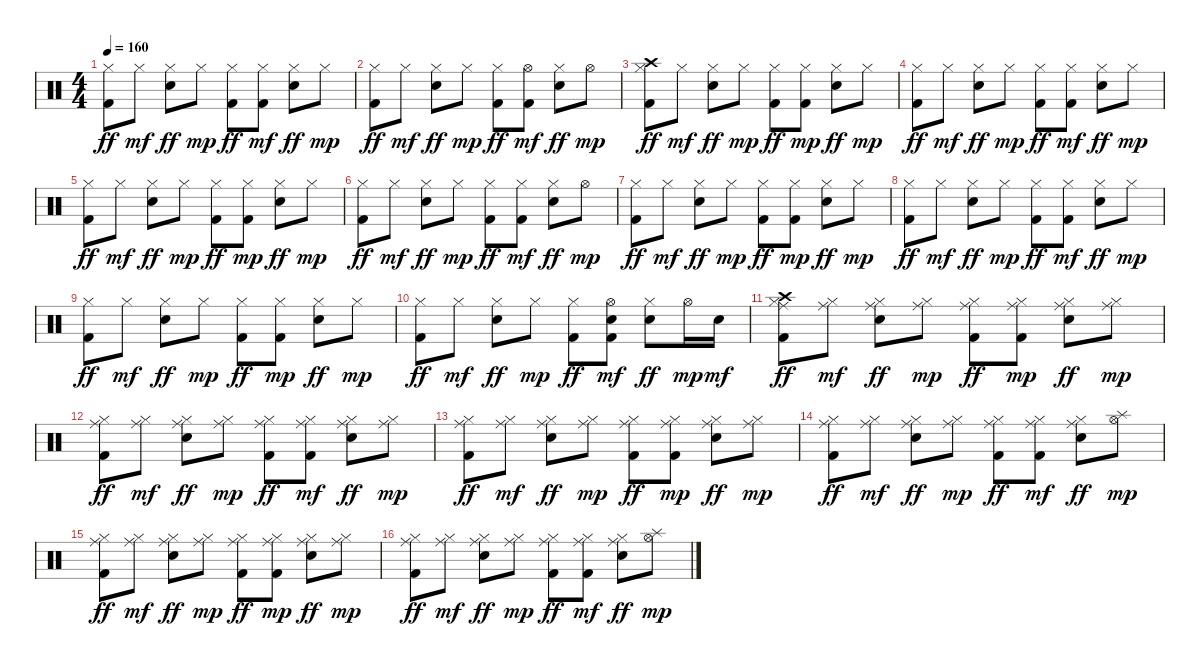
\track "" {instrument percussion}
\staff {score}
\articulation defaults
\ts (4 4)
\tempo 160
\clef neutral
\ks c
("Kick (hit) 2" "Hi-Hat (closed)").8{dy ff} "Hi-Hat (closed)".8{dy mf} ("Snare (hit) 2" "Hi-Hat (closed)").8{dy ff} "Hi-Hat (closed)".8{dy mp} ("Kick (hit) 2" "Hi-Hat (closed)").8{dy ff} ("Hi-Hat (closed)" "Kick (hit) 2").8{dy mf} ("Hi-Hat (closed)" "Snare (hit) 2").8{dy ff} "Hi-Hat (closed)".8{dy mp} |
("Hi-Hat (closed)" "Kick (hit) 2").8{dy ff} "Hi-Hat (closed)".8{dy mf} ("Snare (hit) 2" "Hi-Hat (closed)").8{dy ff} "Hi-Hat (closed)".8{dy mp} ("Hi-Hat (closed)" "Kick (hit) 2").8{dy ff} ("Hi-Hat (open)" "Kick (hit) 2").8{dy mf} ("Snare (hit) 2" "Hi-Hat (closed)").8{dy ff} "Hi-Hat (open)".8{dy mp} |
("Hi-Hat (closed)" "Kick (hit) 2" "Crash high (hit)").8{dy ff} "Hi-Hat (closed)".8{dy mf} ("Snare (hit) 2" "Hi-Hat (closed)").8{dy ff} "Hi-Hat (closed)".8{dy mp} ("Kick (hit) 2" "Hi-Hat (closed)").8{dy ff} ("Kick (hit) 2" "Hi-Hat (closed)").8{dy mp} ("Hi-Hat (closed)" "Snare (hit) 2").8{dy ff} "Hi-Hat (closed)".8{dy mp} |
("Hi-Hat (closed)" "Kick (hit) 2").8{dy ff} "Hi-Hat (closed)".8{dy mf} ("Snare (hit) 2" "Hi-Hat (closed)").8{dy ff} "Hi-Hat (closed)".8{dy mp} ("Hi-Hat (closed)" "Kick (hit) 2").8{dy ff} ("Hi-Hat (closed)" "Kick (hit) 2").8{dy mf} ("Snare (hit) 2" "Hi-Hat (closed)").8{dy ff} "Hi-Hat (closed)".8{dy mp} |
("Kick (hit) 2" "Hi-Hat (closed)").8{dy ff} "Hi-Hat (closed)".8{dy mf} ("Snare (hit) 2" "Hi-Hat (closed)").8{dy ff} "Hi-Hat (closed)".8{dy mp} ("Kick (hit) 2" "Hi-Hat (closed)").8{dy ff} ("Kick (hit) 2" "Hi-Hat (closed)").8{dy mp} ("Hi-Hat (closed)" "Snare (hit) 2").8{dy ff} "Hi-Hat (closed)".8{dy mp} |
("Hi-Hat (closed)" "Kick (hit) 2").8{dy ff} "Hi-Hat (closed)".8{dy mf} ("Snare (hit) 2" "Hi-Hat (closed)").8{dy ff} "Hi-Hat (closed)".8{dy mp} ("Hi-Hat (closed)" "Kick (hit) 2").8{dy ff} ("Hi-Hat (closed)" "Kick (hit) 2").8{dy mf} ("Snare (hit) 2" "Hi-Hat (closed)").8{dy ff} "Hi-Hat (open)".8{dy mp} |
("Hi-Hat (closed)" "Kick (hit) 2").8{dy ff} "Hi-Hat (closed)".8{dy mf} ("Hi-Hat (closed)" "Snare (hit) 2").8{dy ff} "Hi-Hat (closed)".8{dy mp} ("Hi-Hat (closed)" "Kick (hit) 2").8{dy ff} ("Kick (hit) 2" "Hi-Hat (closed)").8{dy mp} ("Hi-Hat (closed)" "Snare (hit) 2").8{dy ff} "Hi-Hat (closed)".8{dy mp} |
("Hi-Hat (closed)" "Kick (hit) 2").8{dy ff} "Hi-Hat (closed)".8{dy mf} ("Snare (hit) 2" "Hi-Hat (closed)").8{dy ff} "Hi-Hat (closed)".8{dy mp} ("Hi-Hat (closed)" "Kick (hit) 2").8{dy ff} ("Hi-Hat (closed)" "Kick (hit) 2").8{dy mf} ("Snare (hit) 2" "Hi-Hat (closed)").8{dy ff} "Hi-Hat (closed)".8{dy mp} |
("Hi-Hat (closed)" "Kick (hit) 2").8{dy ff} "Hi-Hat (closed)".8{dy mf} ("Hi-Hat (closed)" "Snare (hit) 2").8{dy ff} "Hi-Hat (closed)".8{dy mp} ("Hi-Hat (closed)" "Kick (hit) 2").8{dy ff} ("Kick (hit) 2" "Hi-Hat (closed)").8{dy mp} ("Hi-Hat (closed)" "Snare (hit) 2").8{dy ff} "Hi-Hat (closed)".8{dy mp} |
("Hi-Hat (closed)" "Kick (hit) 2").8{dy ff} "Hi-Hat (closed)".8{dy mf} ("Snare (hit) 2" "Hi-Hat (closed)").8{dy ff} "Hi-Hat (closed)".8{dy mp} ("Hi-Hat (closed)" "Kick (hit) 2").8{dy ff} ("Hi-Hat (open)" "Snare (hit) 2" "Kick (hit) 2").8{dy mf} ("Hi-Hat (closed)" "Snare (hit) 2").8{dy ff} "Hi-Hat (open)".16{dy mp} "Snare (hit) 2".16{dy mf} |
("Kick (hit) 2" "Crash high (hit)" "Hi-Hat (closed)" "Ride (middle)").8{dy ff} ("Hi-Hat (closed)" "Ride (middle)").8{dy mf} ("Ride (middle)" "Hi-Hat (closed)" "Snare (hit) 2").8{dy ff} ("Hi-Hat (closed)" "Ride (middle)").8{dy mp} ("Ride (middle)" "Hi-Hat (closed)" "Kick (hit) 2").8{dy ff} ("Kick (hit) 2" "Ride (middle)" "Hi-Hat (closed)").8{dy mp} ("Ride (middle)" "Snare (hit) 2" "Hi-Hat (closed)").8{dy ff} ("Ride (middle)" "Hi-Hat (closed)").8{dy mp} |
("Ride (middle)" "Hi-Hat (closed)" "Kick (hit) 2").8{dy ff} ("Ride (middle)" "Hi-Hat (closed)").8{dy mf} ("Snare (hit) 2" "Hi-Hat (closed)" "Ride (middle)").8{dy ff} ("Ride (middle)" "Hi-Hat (closed)").8{dy mp} ("Ride (middle)" "Hi-Hat (closed)" "Kick (hit) 2").8{dy ff} ("Ride (middle)" "Hi-Hat (closed)" "Kick (hit) 2").8{dy mf} ("Snare (hit) 2" "Ride (middle)" "Hi-Hat (closed)").8{dy ff} ("Ride (middle)" "Hi-Hat (closed)").8{dy mp} |
("Ride (middle)" "Kick (hit) 2" "Hi-Hat (closed)").8{dy ff} ("Hi-Hat (closed)" "Ride (middle)").8{dy mf} ("Hi-Hat (closed)" "Ride (middle)" "Snare (hit) 2").8{dy ff} ("Ride (middle)" "Hi-Hat (closed)").8{dy mp} ("Hi-Hat (closed)" "Kick (hit) 2" "Ride (middle)").8{dy ff} ("Kick (hit) 2" "Hi-Hat (closed)" "Ride (middle)").8{dy mp} ("Ride (middle)" "Hi-Hat (closed)" "Snare (hit) 2").8{dy ff} ("Hi-Hat (closed)" "Ride (middle)").8{dy mp} |
("Ride (middle)" "Hi-Hat (closed)" "Kick (hit) 2").8{dy ff} ("Hi-Hat (closed)" "Ride (middle)").8{dy mf} ("Snare (hit) 2" "Ride (middle)" "Hi-Hat (closed)").8{dy ff} ("Ride (middle)" "Hi-Hat (closed)").8{dy mp} ("Ride (middle)" "Hi-Hat (closed)" "Kick (hit) 2").8{dy ff} ("Hi-Hat (closed)" "Ride (middle)" "Kick (hit) 2").8{dy mf} ("Hi-Hat (closed)" "Ride (middle)" "Snare (hit) 2").8{dy ff} ("Splash (hit)" "Hi-Hat (open)").8{dy mp} |
("Kick (hit) 2" "Ride (middle)" "Hi-Hat (closed)").8{dy ff} ("Hi-Hat (closed)" "Ride (middle)").8{dy mf} ("Ride (middle)" "Snare (hit) 2" "Hi-Hat (closed)").8{dy ff} ("Ride (middle)" "Hi-Hat (closed)").8{dy mp} ("Ride (middle)" "Kick (hit) 2" "Hi-Hat (closed)").8{dy ff} ("Kick (hit) 2" "Hi-Hat (closed)" "Ride (middle)").8{dy mp} ("Hi-Hat (closed)" "Snare (hit) 2" "Ride (middle)").8{dy ff} ("Hi-Hat (closed)" "Ride (middle)").8{dy mp} |
("Hi-Hat (closed)" "Ride (middle)" "Kick (hit) 2").8{dy ff} ("Hi-Hat (closed)" "Ride (middle)").8{dy mf} ("Snare (hit) 2" "Ride (middle)" "Hi-Hat (closed)").8{dy ff} ("Hi-Hat (closed)" "Ride (middle)").8{dy mp} ("Hi-Hat (closed)" "Ride (middle)" "Kick (hit) 2").8{dy ff} ("Ride (middle)" "Hi-Hat (closed)" "Kick (hit) 2").8{dy mf} ("Hi-Hat (closed)" "Snare (hit) 2" "Ride (middle)").8{dy ff} ("Splash (hit)" "Hi-Hat (open)").8{dy mp}
